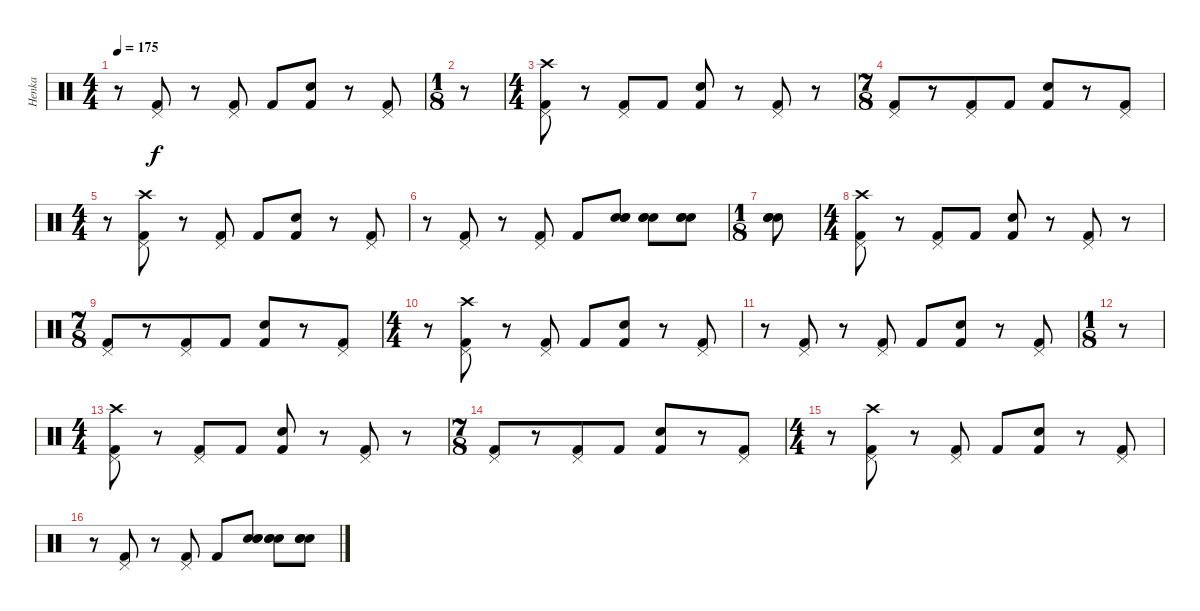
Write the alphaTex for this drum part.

\track ("Henka" "Henka") {instrument percussion}
\staff {score}
\articulation defaults
\ts (4 4)
\tempo 175
\clef neutral
\ks c
r.8{dy f} ("Pedal Hi-Hat (hit)" "Kick (hit) 2").8 r.8 ("Pedal Hi-Hat (hit)" "Kick (hit) 2").8 "Kick (hit) 2".8 ("Snare (hit) 2" "Kick (hit) 2").8 r.8 ("Pedal Hi-Hat (hit)" "Kick (hit) 2").8 |
\ts (1 8)
r.8 |
\ts (4 4)
("Crash high (hit)" "Pedal Hi-Hat (hit)" "Kick (hit) 2").8 r.8 ("Pedal Hi-Hat (hit)" "Kick (hit) 2").8 "Kick (hit) 2".8 ("Snare (hit) 2" "Kick (hit) 2").8 r.8 ("Pedal Hi-Hat (hit)" "Kick (hit) 2").8 r.8 |
\ts (7 8)
("Pedal Hi-Hat (hit)" "Kick (hit) 2").8 r.8 ("Pedal Hi-Hat (hit)" "Kick (hit) 2").8 "Kick (hit) 2".8 ("Snare (hit) 2" "Kick (hit) 2").8 r.8 ("Pedal Hi-Hat (hit)" "Kick (hit) 2").8 |
\ts (4 4)
r.8 ("Crash high (hit)" "Pedal Hi-Hat (hit)" "Kick (hit) 2").8 r.8 ("Pedal Hi-Hat (hit)" "Kick (hit) 2").8 "Kick (hit) 2".8 ("Snare (hit) 2" "Kick (hit) 2").8 r.8 ("Pedal Hi-Hat (hit)" "Kick (hit) 2").8 |
r.8 ("Pedal Hi-Hat (hit)" "Kick (hit) 2").8 r.8 ("Pedal Hi-Hat (hit)" "Kick (hit) 2").8 "Kick (hit) 2".8 ("Snare (hit) 2" "Electric Snare (hit)" "Snare (hit) 2").8 ("Snare (hit) 2" "Electric Snare (hit)" "Snare (hit) 2").8 ("Snare (hit) 2" "Electric Snare (hit)" "Snare (hit) 2").8 |
\ts (1 8)
("Snare (hit) 2" "Electric Snare (hit)" "Snare (hit) 2").8 |
\ts (4 4)
("Crash high (hit)" "Pedal Hi-Hat (hit)" "Kick (hit) 2").8 r.8 ("Pedal Hi-Hat (hit)" "Kick (hit) 2").8 "Kick (hit) 2".8 ("Snare (hit) 2" "Kick (hit) 2").8 r.8 ("Pedal Hi-Hat (hit)" "Kick (hit) 2").8 r.8 |
\ts (7 8)
("Pedal Hi-Hat (hit)" "Kick (hit) 2").8 r.8 ("Pedal Hi-Hat (hit)" "Kick (hit) 2").8 "Kick (hit) 2".8 ("Snare (hit) 2" "Kick (hit) 2").8 r.8 ("Pedal Hi-Hat (hit)" "Kick (hit) 2").8 |
\ts (4 4)
r.8 ("Crash high (hit)" "Pedal Hi-Hat (hit)" "Kick (hit) 2").8 r.8 ("Pedal Hi-Hat (hit)" "Kick (hit) 2").8 "Kick (hit) 2".8 ("Snare (hit) 2" "Kick (hit) 2").8 r.8 ("Pedal Hi-Hat (hit)" "Kick (hit) 2").8 |
r.8 ("Pedal Hi-Hat (hit)" "Kick (hit) 2").8 r.8 ("Pedal Hi-Hat (hit)" "Kick (hit) 2").8 "Kick (hit) 2".8 ("Snare (hit) 2" "Kick (hit) 2").8 r.8 ("Pedal Hi-Hat (hit)" "Kick (hit) 2").8 |
\ts (1 8)
r.8 |
\ts (4 4)
("Crash high (hit)" "Pedal Hi-Hat (hit)" "Kick (hit) 2").8 r.8 ("Pedal Hi-Hat (hit)" "Kick (hit) 2").8 "Kick (hit) 2".8 ("Snare (hit) 2" "Kick (hit) 2").8 r.8 ("Pedal Hi-Hat (hit)" "Kick (hit) 2").8 r.8 |
\ts (7 8)
("Pedal Hi-Hat (hit)" "Kick (hit) 2").8 r.8 ("Pedal Hi-Hat (hit)" "Kick (hit) 2").8 "Kick (hit) 2".8 ("Snare (hit) 2" "Kick (hit) 2").8 r.8 ("Pedal Hi-Hat (hit)" "Kick (hit) 2").8 |
\ts (4 4)
r.8 ("Crash high (hit)" "Pedal Hi-Hat (hit)" "Kick (hit) 2").8 r.8 ("Pedal Hi-Hat (hit)" "Kick (hit) 2").8 "Kick (hit) 2".8 ("Snare (hit) 2" "Kick (hit) 2").8 r.8 ("Pedal Hi-Hat (hit)" "Kick (hit) 2").8 |
r.8 ("Pedal Hi-Hat (hit)" "Kick (hit) 2").8 r.8 ("Pedal Hi-Hat (hit)" "Kick (hit) 2").8 "Kick (hit) 2".8 ("Snare (hit) 2" "Electric Snare (hit)" "Snare (hit) 2").8 ("Snare (hit) 2" "Electric Snare (hit)" "Snare (hit) 2").8 ("Snare (hit) 2" "Electric Snare (hit)" "Snare (hit) 2").8
